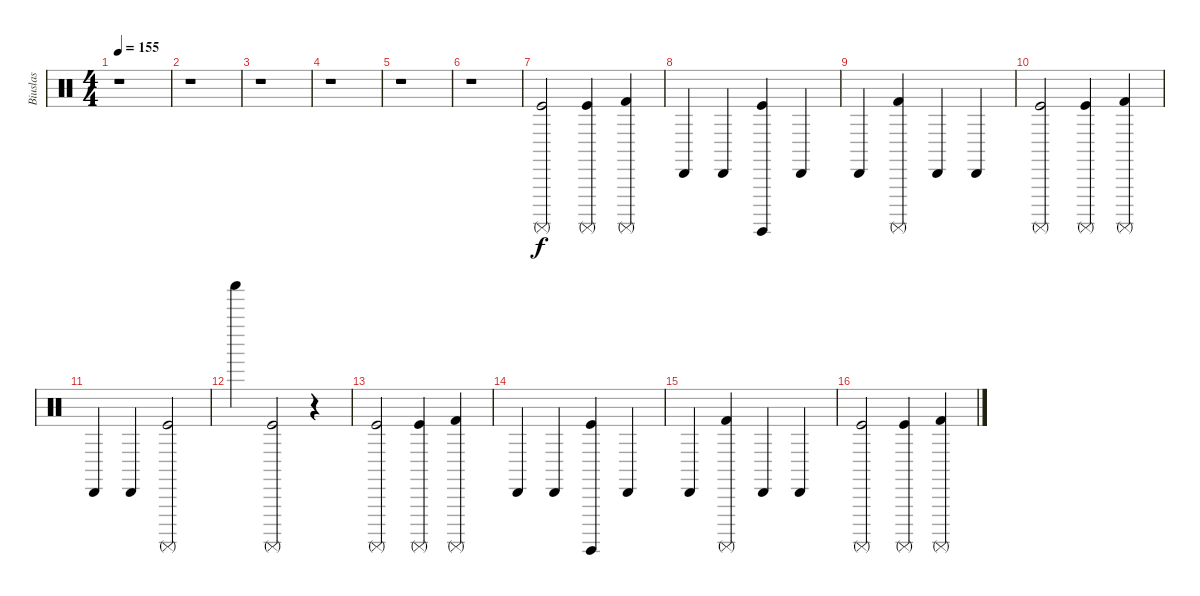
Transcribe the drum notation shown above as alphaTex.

\track ("Biuslas" "Biuslas") {instrument percussion}
\staff {score}
\articulation defaults
\ts (4 4)
\tempo 155
\clef neutral
\ks c
r.1{dy f} |
r.1 |
r.1 |
r.1 |
r.1 |
r.1 |
("Surdo (mute)" "Kick (hit)").2 ("Surdo (mute)" "Kick (hit)").4 ("Surdo (mute)" "Kick (hit) 2").4 |
"Cabasa (hit)".4 "Cabasa (hit)".4 ("Surdo (hit)" "Kick (hit)").4 "Cabasa (hit)".4 |
"Cabasa (hit)".4 ("Surdo (mute)" "Kick (hit) 2").4 "Cabasa (hit)".4 "Cabasa (hit)".4 |
("Surdo (mute)" "Kick (hit)").2 ("Surdo (mute)" "Kick (hit)").4 ("Surdo (mute)" "Kick (hit) 2").4 |
"Cabasa (hit)".4 "Cabasa (hit)".4 ("Surdo (mute)" "Kick (hit)").2 |
"Shaker (hit)".4 ("Surdo (mute)" "Kick (hit)").2 r.4 |
("Surdo (mute)" "Kick (hit)").2 ("Surdo (mute)" "Kick (hit)").4 ("Surdo (mute)" "Kick (hit) 2").4 |
"Cabasa (hit)".4 "Cabasa (hit)".4 ("Surdo (hit)" "Kick (hit)").4 "Cabasa (hit)".4 |
"Cabasa (hit)".4 ("Surdo (mute)" "Kick (hit) 2").4 "Cabasa (hit)".4 "Cabasa (hit)".4 |
("Surdo (mute)" "Kick (hit)").2 ("Surdo (mute)" "Kick (hit)").4 ("Surdo (mute)" "Kick (hit) 2").4
